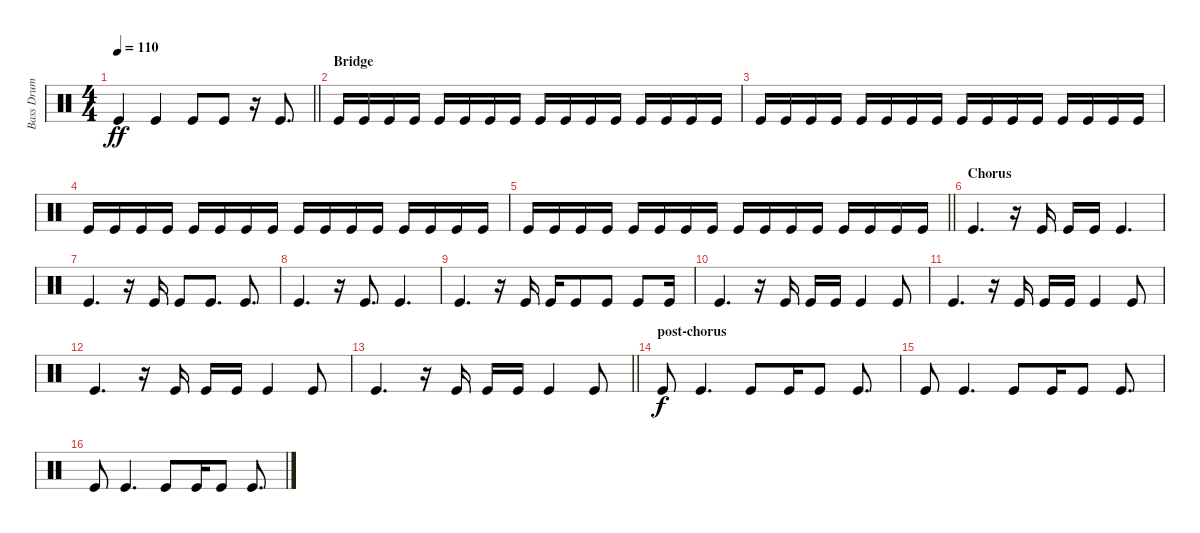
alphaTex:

\track ("Bass Drum" "Bass Drum") {instrument percussion}
\staff {score}
\articulation defaults
\ts (4 4)
\tempo 110
\clef neutral
\barLineRight lightlight
\ks c "Kick (hit)".4{dy ff} "Kick (hit)".4 "Kick (hit)".8 "Kick (hit)".8
r.16 "Kick (hit)".8{d} |
\section ("" "Bridge")
"Kick (hit)".16 "Kick (hit)".16 "Kick (hit)".16 "Kick (hit)".16 "Kick (hit)".16 "Kick (hit)".16 "Kick (hit)".16 "Kick (hit)".16 "Kick (hit)".16 "Kick (hit)".16 "Kick (hit)".16 "Kick (hit)".16 "Kick (hit)".16 "Kick (hit)".16 "Kick (hit)".16 "Kick (hit)".16 |
"Kick (hit)".16 "Kick (hit)".16 "Kick (hit)".16 "Kick (hit)".16 "Kick (hit)".16 "Kick (hit)".16 "Kick (hit)".16 "Kick (hit)".16 "Kick (hit)".16 "Kick (hit)".16 "Kick (hit)".16 "Kick (hit)".16 "Kick (hit)".16 "Kick (hit)".16 "Kick (hit)".16 "Kick (hit)".16 |
"Kick (hit)".16 "Kick (hit)".16 "Kick (hit)".16 "Kick (hit)".16 "Kick (hit)".16 "Kick (hit)".16 "Kick (hit)".16 "Kick (hit)".16 "Kick (hit)".16 "Kick (hit)".16 "Kick (hit)".16 "Kick (hit)".16 "Kick (hit)".16 "Kick (hit)".16 "Kick (hit)".16 "Kick (hit)".16 |
\barLineRight lightlight "Kick (hit)".16 "Kick (hit)".16 "Kick (hit)".16 "Kick (hit)".16 "Kick (hit)".16 "Kick (hit)".16 "Kick (hit)".16 "Kick (hit)".16 "Kick (hit)".16 "Kick (hit)".16 "Kick (hit)".16 "Kick (hit)".16 "Kick (hit)".16 "Kick (hit)".16 "Kick (hit)".16 "Kick (hit)".16
|
\section ("" "Chorus")
"Kick (hit)".4{d} r.16 "Kick (hit)".16 "Kick (hit)".16 "Kick (hit)".16 "Kick (hit)".4{d} |
"Kick (hit)".4{d} r.16 "Kick (hit)".16 "Kick (hit)".8 "Kick (hit)".8{d} "Kick (hit)".8{d} |
"Kick (hit)".4{d} r.16 "Kick (hit)".8{d} "Kick (hit)".4{d} |
"Kick (hit)".4{d} r.16 "Kick (hit)".16 "Kick (hit)".16 "Kick (hit)".8 "Kick (hit)".8 "Kick (hit)".8 "Kick (hit)".16 |
"Kick (hit)".4{d} r.16 "Kick (hit)".16 "Kick (hit)".16 "Kick (hit)".16 "Kick (hit)".4 "Kick (hit)".8 |
"Kick (hit)".4{d} r.16 "Kick (hit)".16 "Kick (hit)".16 "Kick (hit)".16 "Kick (hit)".4 "Kick (hit)".8 |
"Kick (hit)".4{d} r.16 "Kick (hit)".16 "Kick (hit)".16 "Kick (hit)".16 "Kick (hit)".4 "Kick (hit)".8 |
\barLineRight lightlight "Kick (hit)".4{d}
r.16 "Kick (hit)".16 "Kick (hit)".16 "Kick (hit)".16 "Kick (hit)".4 "Kick (hit)".8 |
\section ("" "post-chorus")
"Kick (hit)".8{dy f} "Kick (hit)".4{d} "Kick (hit)".8 "Kick (hit)".16 "Kick (hit)".8 "Kick (hit)".8{d} |
"Kick (hit)".8 "Kick (hit)".4{d} "Kick (hit)".8 "Kick (hit)".16 "Kick (hit)".8 "Kick (hit)".8{d} |
"Kick (hit)".8 "Kick (hit)".4{d} "Kick (hit)".8 "Kick (hit)".16 "Kick (hit)".8 "Kick (hit)".8{d}
